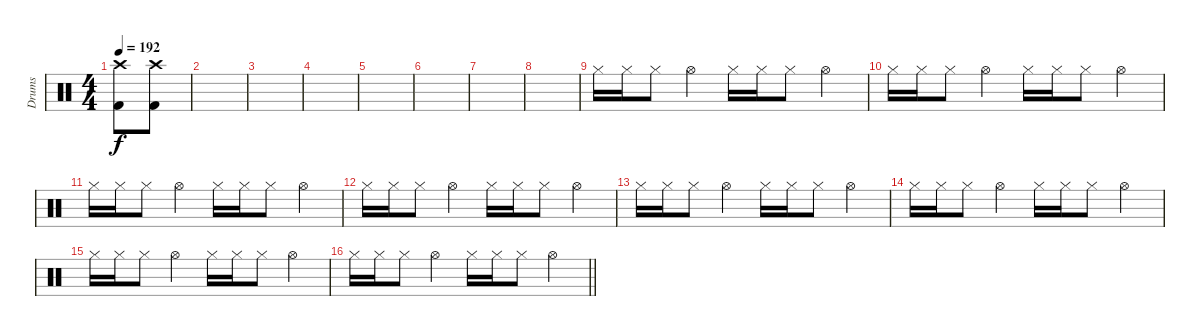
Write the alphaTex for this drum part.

\track ("Drums" "Drums") {instrument percussion}
\staff {score}
\articulation defaults
\ts (4 4)
\section ("" "")
\tempo 192
\clef neutral
\ks c
("Crash high (hit)" "Kick (hit) 2").8{dy f} ("Crash high (hit)" "Kick (hit) 2").8 |
|
|
|
|
|
|
|
"Hi-Hat (closed)".16 "Hi-Hat (closed)".16 "Hi-Hat (closed)".8 "Hi-Hat (open)".4 "Hi-Hat (closed)".16 "Hi-Hat (closed)".16 "Hi-Hat (closed)".8 "Hi-Hat (open)".4 |
"Hi-Hat (closed)".16 "Hi-Hat (closed)".16 "Hi-Hat (closed)".8 "Hi-Hat (open)".4 "Hi-Hat (closed)".16 "Hi-Hat (closed)".16 "Hi-Hat (closed)".8 "Hi-Hat (open)".4 |
"Hi-Hat (closed)".16 "Hi-Hat (closed)".16 "Hi-Hat (closed)".8 "Hi-Hat (open)".4 "Hi-Hat (closed)".16 "Hi-Hat (closed)".16 "Hi-Hat (closed)".8 "Hi-Hat (open)".4 |
"Hi-Hat (closed)".16 "Hi-Hat (closed)".16 "Hi-Hat (closed)".8 "Hi-Hat (open)".4 "Hi-Hat (closed)".16 "Hi-Hat (closed)".16 "Hi-Hat (closed)".8 "Hi-Hat (open)".4 |
"Hi-Hat (closed)".16 "Hi-Hat (closed)".16 "Hi-Hat (closed)".8 "Hi-Hat (open)".4 "Hi-Hat (closed)".16 "Hi-Hat (closed)".16 "Hi-Hat (closed)".8 "Hi-Hat (open)".4 |
"Hi-Hat (closed)".16 "Hi-Hat (closed)".16 "Hi-Hat (closed)".8 "Hi-Hat (open)".4 "Hi-Hat (closed)".16 "Hi-Hat (closed)".16 "Hi-Hat (closed)".8 "Hi-Hat (open)".4 |
"Hi-Hat (closed)".16 "Hi-Hat (closed)".16 "Hi-Hat (closed)".8 "Hi-Hat (open)".4 "Hi-Hat (closed)".16 "Hi-Hat (closed)".16 "Hi-Hat (closed)".8 "Hi-Hat (open)".4 |
\barLineRight lightlight "Hi-Hat (closed)".16 "Hi-Hat (closed)".16 "Hi-Hat (closed)".8 "Hi-Hat (open)".4 "Hi-Hat (closed)".16 "Hi-Hat (closed)".16 "Hi-Hat (closed)".8 "Hi-Hat (open)".4
